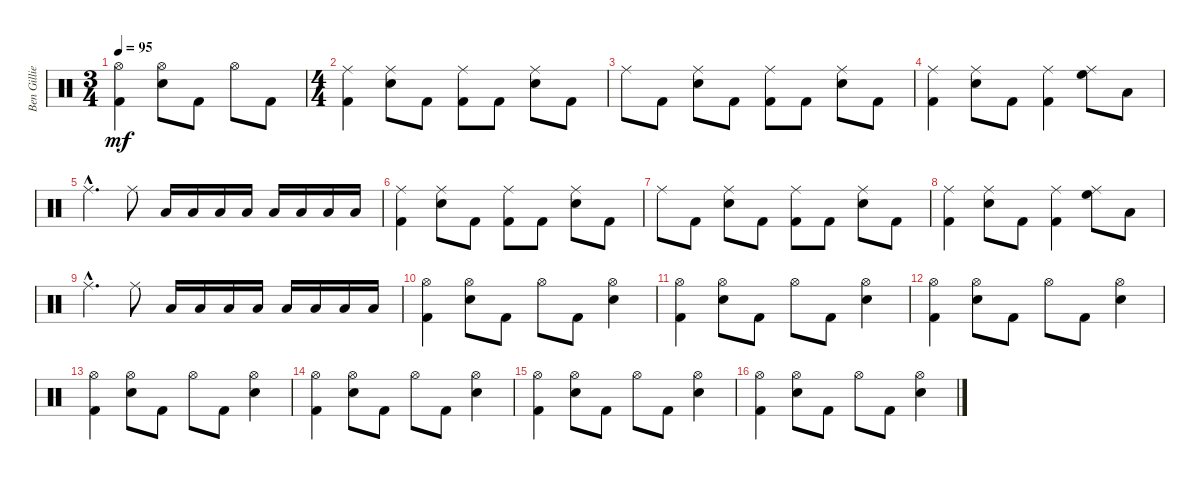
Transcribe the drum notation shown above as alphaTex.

\track ("Ben Gillies" "Ben Gillie") {instrument percussion}
\staff {score}
\articulation defaults
\ts (3 4)
\tempo 95
\clef neutral
\ks c
("Hi-Hat (open)" "Kick (hit) 2").4{dy mf} ("Hi-Hat (open)" "Electric Snare (hit)").8 "Kick (hit) 2".8 "Hi-Hat (open)".8 "Kick (hit) 2".8 |
\ts (4 4)
("Ride (middle)" "Kick (hit) 2").4 ("Ride (middle)" "Electric Snare (hit)").8 "Kick (hit) 2".8 ("Ride (middle)" "Kick (hit) 2").8 "Kick (hit) 2".8 ("Ride (middle)" "Electric Snare (hit)").8 "Kick (hit) 2".8 |
"Ride (middle)".8 "Kick (hit) 2".8 ("Ride (middle)" "Electric Snare (hit)").8 "Kick (hit) 2".8 ("Ride (middle)" "Kick (hit) 2").8 "Kick (hit) 2".8 ("Ride (middle)" "Electric Snare (hit)").8 "Kick (hit) 2".8 |
("Ride (middle)" "Kick (hit) 2").4 ("Ride (middle)" "Electric Snare (hit)").8 "Kick (hit) 2".8 ("Ride (middle)" "Kick (hit) 2").4 ("High Floor Tom (hit)" "Ride (middle)").8 "Low Floor Tom (hit)".8 |
"Ride (middle)"{hac}.4{d} "Ride (middle)".8 "Low Tom (hit)".16 "Low Tom (hit)".16 "Low Tom (hit)".16 "Low Tom (hit)".16 "Low Tom (hit)".16 "Low Tom (hit)".16 "Low Tom (hit)".16 "Low Tom (hit)".16 |
("Ride (middle)" "Kick (hit) 2").4 ("Ride (middle)" "Electric Snare (hit)").8 "Kick (hit) 2".8 ("Ride (middle)" "Kick (hit) 2").8 "Kick (hit) 2".8 ("Ride (middle)" "Electric Snare (hit)").8 "Kick (hit) 2".8 |
"Ride (middle)".8 "Kick (hit) 2".8 ("Ride (middle)" "Electric Snare (hit)").8 "Kick (hit) 2".8 ("Ride (middle)" "Kick (hit) 2").8 "Kick (hit) 2".8 ("Ride (middle)" "Electric Snare (hit)").8 "Kick (hit) 2".8 |
("Ride (middle)" "Kick (hit) 2").4 ("Ride (middle)" "Electric Snare (hit)").8 "Kick (hit) 2".8 ("Ride (middle)" "Kick (hit) 2").4 ("High Floor Tom (hit)" "Ride (middle)").8 "Low Floor Tom (hit)".8 |
"Ride (middle)"{hac}.4{d} "Ride (middle)".8 "Low Tom (hit)".16 "Low Tom (hit)".16 "Low Tom (hit)".16 "Low Tom (hit)".16 "Low Tom (hit)".16 "Low Tom (hit)".16 "Low Tom (hit)".16 "Low Tom (hit)".16 |
("Hi-Hat (open)" "Kick (hit) 2").4 ("Hi-Hat (open)" "Electric Snare (hit)").8 "Kick (hit) 2".8 "Hi-Hat (open)".8 "Kick (hit) 2".8 ("Hi-Hat (open)" "Electric Snare (hit)").4 |
("Hi-Hat (open)" "Kick (hit) 2").4 ("Hi-Hat (open)" "Electric Snare (hit)").8 "Kick (hit) 2".8 "Hi-Hat (open)".8 "Kick (hit) 2".8 ("Hi-Hat (open)" "Electric Snare (hit)").4 |
("Hi-Hat (open)" "Kick (hit) 2").4 ("Hi-Hat (open)" "Electric Snare (hit)").8 "Kick (hit) 2".8 "Hi-Hat (open)".8 "Kick (hit) 2".8 ("Hi-Hat (open)" "Electric Snare (hit)").4 |
("Hi-Hat (open)" "Kick (hit) 2").4 ("Hi-Hat (open)" "Electric Snare (hit)").8 "Kick (hit) 2".8 "Hi-Hat (open)".8 "Kick (hit) 2".8 ("Hi-Hat (open)" "Electric Snare (hit)").4 |
("Hi-Hat (open)" "Kick (hit) 2").4 ("Hi-Hat (open)" "Electric Snare (hit)").8 "Kick (hit) 2".8 "Hi-Hat (open)".8 "Kick (hit) 2".8 ("Hi-Hat (open)" "Electric Snare (hit)").4 |
("Hi-Hat (open)" "Kick (hit) 2").4 ("Hi-Hat (open)" "Electric Snare (hit)").8 "Kick (hit) 2".8 "Hi-Hat (open)".8 "Kick (hit) 2".8 ("Hi-Hat (open)" "Electric Snare (hit)").4 |
("Hi-Hat (open)" "Kick (hit) 2").4 ("Hi-Hat (open)" "Electric Snare (hit)").8 "Kick (hit) 2".8 "Hi-Hat (open)".8 "Kick (hit) 2".8 ("Hi-Hat (open)" "Electric Snare (hit)").4
